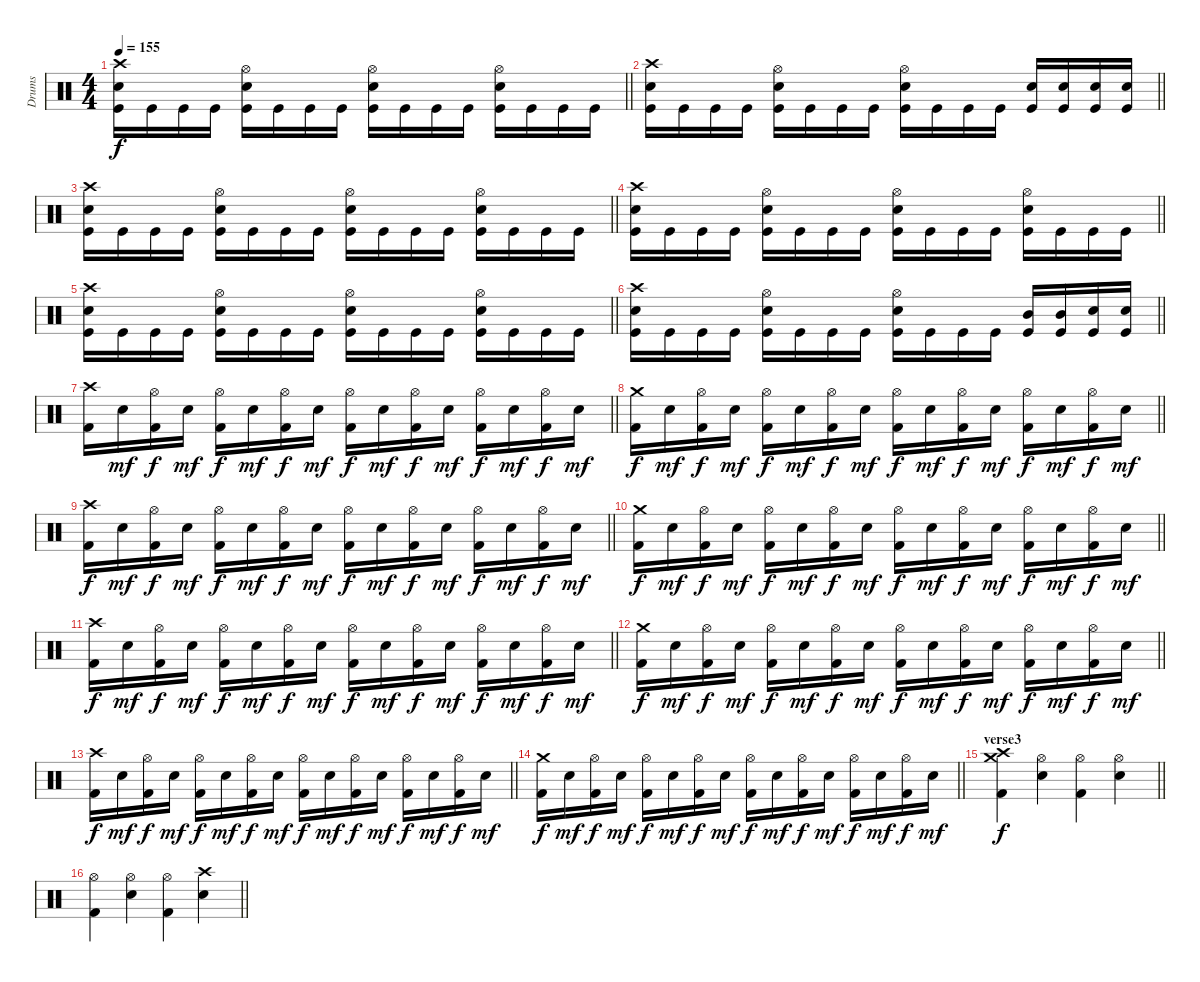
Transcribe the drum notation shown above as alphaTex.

\track ("Drums" "Drums") {instrument percussion}
\staff {score}
\articulation defaults
\ts (4 4)
\tempo 155
\clef neutral
\barLineRight lightlight
\ks c
("Crash high (hit)" "Snare (hit) 2" "Kick (hit)").16{dy f} "Kick (hit)".16 "Kick (hit)".16 "Kick (hit)".16 ("Hi-Hat (open)" "Snare (hit) 2" "Kick (hit)").16 "Kick (hit)".16 "Kick (hit)".16 "Kick (hit)".16 ("Hi-Hat (open)" "Snare (hit) 2" "Kick (hit)").16 "Kick (hit)".16 "Kick (hit)".16 "Kick (hit)".16 ("Hi-Hat (open)" "Snare (hit) 2" "Kick (hit)").16 "Kick (hit)".16 "Kick (hit)".16 "Kick (hit)".16 |
\barLineRight lightlight
("Crash high (hit)" "Snare (hit) 2" "Kick (hit)").16 "Kick (hit)".16 "Kick (hit)".16 "Kick (hit)".16 ("Hi-Hat (open)" "Snare (hit) 2" "Kick (hit)").16 "Kick (hit)".16 "Kick (hit)".16 "Kick (hit)".16 ("Hi-Hat (open)" "Snare (hit) 2" "Kick (hit)").16 "Kick (hit)".16 "Kick (hit)".16 "Kick (hit)".16 ("Electric Snare (hit)" "Kick (hit)").16 ("Electric Snare (hit)" "Kick (hit)").16 ("Electric Snare (hit)" "Kick (hit)").16 ("Electric Snare (hit)" "Kick (hit)").16 |
\barLineRight lightlight
("Crash high (hit)" "Snare (hit) 2" "Kick (hit)").16 "Kick (hit)".16 "Kick (hit)".16 "Kick (hit)".16 ("Hi-Hat (open)" "Snare (hit) 2" "Kick (hit)").16 "Kick (hit)".16 "Kick (hit)".16 "Kick (hit)".16 ("Hi-Hat (open)" "Snare (hit) 2" "Kick (hit)").16 "Kick (hit)".16 "Kick (hit)".16 "Kick (hit)".16 ("Hi-Hat (open)" "Snare (hit) 2" "Kick (hit)").16 "Kick (hit)".16 "Kick (hit)".16 "Kick (hit)".16 |
\barLineRight lightlight
("Crash high (hit)" "Snare (hit) 2" "Kick (hit)").16 "Kick (hit)".16 "Kick (hit)".16 "Kick (hit)".16 ("Hi-Hat (open)" "Snare (hit) 2" "Kick (hit)").16 "Kick (hit)".16 "Kick (hit)".16 "Kick (hit)".16 ("Hi-Hat (open)" "Snare (hit) 2" "Kick (hit)").16 "Kick (hit)".16 "Kick (hit)".16 "Kick (hit)".16 ("Hi-Hat (open)" "Snare (hit) 2" "Kick (hit)").16 "Kick (hit)".16 "Kick (hit)".16 "Kick (hit)".16 |
\barLineRight lightlight
("Crash high (hit)" "Snare (hit) 2" "Kick (hit)").16 "Kick (hit)".16 "Kick (hit)".16 "Kick (hit)".16 ("Hi-Hat (open)" "Snare (hit) 2" "Kick (hit)").16 "Kick (hit)".16 "Kick (hit)".16 "Kick (hit)".16 ("Hi-Hat (open)" "Snare (hit) 2" "Kick (hit)").16 "Kick (hit)".16 "Kick (hit)".16 "Kick (hit)".16 ("Hi-Hat (open)" "Snare (hit) 2" "Kick (hit)").16 "Kick (hit)".16 "Kick (hit)".16 "Kick (hit)".16 |
\barLineRight lightlight
("Crash high (hit)" "Snare (hit) 2" "Kick (hit)").16 "Kick (hit)".16 "Kick (hit)".16 "Kick (hit)".16 ("Hi-Hat (open)" "Snare (hit) 2" "Kick (hit)").16 "Kick (hit)".16 "Kick (hit)".16 "Kick (hit)".16 ("Hi-Hat (open)" "Snare (hit) 2" "Kick (hit)").16 "Kick (hit)".16 "Kick (hit)".16 "Kick (hit)".16 ("Mid Tom (hit)" "Kick (hit)").16 ("Mid Tom (hit)" "Kick (hit)").16 ("Electric Snare (hit)" "Kick (hit)").16 ("Electric Snare (hit)" "Kick (hit)").16 |
\barLineRight lightlight
("Crash high (hit)" "Kick (hit) 2").16 "Electric Snare (hit)".16{dy mf} ("Hi-Hat (open)" "Kick (hit) 2").16{dy f} "Electric Snare (hit)".16{dy mf} ("Hi-Hat (open)" "Kick (hit) 2").16{dy f} "Electric Snare (hit)".16{dy mf} ("Hi-Hat (open)" "Kick (hit) 2").16{dy f} "Electric Snare (hit)".16{dy mf} ("Hi-Hat (open)" "Kick (hit) 2").16{dy f} "Electric Snare (hit)".16{dy mf} ("Hi-Hat (open)" "Kick (hit) 2").16{dy f} "Electric Snare (hit)".16{dy mf} ("Hi-Hat (open)" "Kick (hit) 2").16{dy f} "Electric Snare (hit)".16{dy mf} ("Hi-Hat (open)" "Kick (hit) 2").16{dy f} "Electric Snare (hit)".16{dy mf} |
\barLineRight lightlight
("Crash medium (hit)" "Kick (hit) 2").16{dy f} "Electric Snare (hit)".16{dy mf} ("Hi-Hat (open)" "Kick (hit) 2").16{dy f} "Electric Snare (hit)".16{dy mf} ("Hi-Hat (open)" "Kick (hit) 2").16{dy f} "Electric Snare (hit)".16{dy mf} ("Hi-Hat (open)" "Kick (hit) 2").16{dy f} "Electric Snare (hit)".16{dy mf} ("Hi-Hat (open)" "Kick (hit) 2").16{dy f} "Electric Snare (hit)".16{dy mf} ("Hi-Hat (open)" "Kick (hit) 2").16{dy f} "Electric Snare (hit)".16{dy mf} ("Hi-Hat (open)" "Kick (hit) 2").16{dy f} "Electric Snare (hit)".16{dy mf} ("Hi-Hat (open)" "Kick (hit) 2").16{dy f} "Electric Snare (hit)".16{dy mf} |
\barLineRight lightlight
("Crash high (hit)" "Kick (hit) 2").16{dy f} "Electric Snare (hit)".16{dy mf} ("Hi-Hat (open)" "Kick (hit) 2").16{dy f} "Electric Snare (hit)".16{dy mf} ("Hi-Hat (open)" "Kick (hit) 2").16{dy f} "Electric Snare (hit)".16{dy mf} ("Hi-Hat (open)" "Kick (hit) 2").16{dy f} "Electric Snare (hit)".16{dy mf} ("Hi-Hat (open)" "Kick (hit) 2").16{dy f} "Electric Snare (hit)".16{dy mf} ("Hi-Hat (open)" "Kick (hit) 2").16{dy f} "Electric Snare (hit)".16{dy mf} ("Hi-Hat (open)" "Kick (hit) 2").16{dy f} "Electric Snare (hit)".16{dy mf} ("Hi-Hat (open)" "Kick (hit) 2").16{dy f} "Electric Snare (hit)".16{dy mf} |
\barLineRight lightlight
("Crash medium (hit)" "Kick (hit) 2").16{dy f} "Electric Snare (hit)".16{dy mf} ("Hi-Hat (open)" "Kick (hit) 2").16{dy f} "Electric Snare (hit)".16{dy mf} ("Hi-Hat (open)" "Kick (hit) 2").16{dy f} "Electric Snare (hit)".16{dy mf} ("Hi-Hat (open)" "Kick (hit) 2").16{dy f} "Electric Snare (hit)".16{dy mf} ("Hi-Hat (open)" "Kick (hit) 2").16{dy f} "Electric Snare (hit)".16{dy mf} ("Hi-Hat (open)" "Kick (hit) 2").16{dy f} "Electric Snare (hit)".16{dy mf} ("Hi-Hat (open)" "Kick (hit) 2").16{dy f} "Electric Snare (hit)".16{dy mf} ("Hi-Hat (open)" "Kick (hit) 2").16{dy f} "Electric Snare (hit)".16{dy mf} |
\barLineRight lightlight
("Crash high (hit)" "Kick (hit) 2").16{dy f} "Electric Snare (hit)".16{dy mf} ("Hi-Hat (open)" "Kick (hit) 2").16{dy f} "Electric Snare (hit)".16{dy mf} ("Hi-Hat (open)" "Kick (hit) 2").16{dy f} "Electric Snare (hit)".16{dy mf} ("Hi-Hat (open)" "Kick (hit) 2").16{dy f} "Electric Snare (hit)".16{dy mf} ("Hi-Hat (open)" "Kick (hit) 2").16{dy f} "Electric Snare (hit)".16{dy mf} ("Hi-Hat (open)" "Kick (hit) 2").16{dy f} "Electric Snare (hit)".16{dy mf} ("Hi-Hat (open)" "Kick (hit) 2").16{dy f} "Electric Snare (hit)".16{dy mf} ("Hi-Hat (open)" "Kick (hit) 2").16{dy f} "Electric Snare (hit)".16{dy mf} |
\barLineRight lightlight
("Crash medium (hit)" "Kick (hit) 2").16{dy f} "Electric Snare (hit)".16{dy mf} ("Hi-Hat (open)" "Kick (hit) 2").16{dy f} "Electric Snare (hit)".16{dy mf} ("Hi-Hat (open)" "Kick (hit) 2").16{dy f} "Electric Snare (hit)".16{dy mf} ("Hi-Hat (open)" "Kick (hit) 2").16{dy f} "Electric Snare (hit)".16{dy mf} ("Hi-Hat (open)" "Kick (hit) 2").16{dy f} "Electric Snare (hit)".16{dy mf} ("Hi-Hat (open)" "Kick (hit) 2").16{dy f} "Electric Snare (hit)".16{dy mf} ("Hi-Hat (open)" "Kick (hit) 2").16{dy f} "Electric Snare (hit)".16{dy mf} ("Hi-Hat (open)" "Kick (hit) 2").16{dy f} "Electric Snare (hit)".16{dy mf} |
\barLineRight lightlight
("Crash high (hit)" "Kick (hit) 2").16{dy f} "Electric Snare (hit)".16{dy mf} ("Hi-Hat (open)" "Kick (hit) 2").16{dy f} "Electric Snare (hit)".16{dy mf} ("Hi-Hat (open)" "Kick (hit) 2").16{dy f} "Electric Snare (hit)".16{dy mf} ("Hi-Hat (open)" "Kick (hit) 2").16{dy f} "Electric Snare (hit)".16{dy mf} ("Hi-Hat (open)" "Kick (hit) 2").16{dy f} "Electric Snare (hit)".16{dy mf} ("Hi-Hat (open)" "Kick (hit) 2").16{dy f} "Electric Snare (hit)".16{dy mf} ("Hi-Hat (open)" "Kick (hit) 2").16{dy f} "Electric Snare (hit)".16{dy mf} ("Hi-Hat (open)" "Kick (hit) 2").16{dy f} "Electric Snare (hit)".16{dy mf} |
\barLineRight lightlight
("Crash medium (hit)" "Kick (hit) 2").16{dy f} "Electric Snare (hit)".16{dy mf} ("Hi-Hat (open)" "Kick (hit) 2").16{dy f} "Electric Snare (hit)".16{dy mf} ("Hi-Hat (open)" "Kick (hit) 2").16{dy f} "Electric Snare (hit)".16{dy mf} ("Hi-Hat (open)" "Kick (hit) 2").16{dy f} "Electric Snare (hit)".16{dy mf} ("Hi-Hat (open)" "Kick (hit) 2").16{dy f} "Electric Snare (hit)".16{dy mf} ("Hi-Hat (open)" "Kick (hit) 2").16{dy f} "Electric Snare (hit)".16{dy mf} ("Hi-Hat (open)" "Kick (hit) 2").16{dy f} "Electric Snare (hit)".16{dy mf} ("Hi-Hat (open)" "Kick (hit) 2").16{dy f} "Electric Snare (hit)".16{dy mf} |
\section ("" "verse3")
\barLineRight lightlight
("Kick (hit) 2" "Crash medium (hit)" "Crash high (hit)").4{dy f} ("Hi-Hat (open)" "Snare (hit) 2").4 ("Kick (hit) 2" "Hi-Hat (open)").4 ("Hi-Hat (open)" "Snare (hit) 2").4 |
\barLineRight lightlight
("Kick (hit) 2" "Hi-Hat (open)").4 ("Hi-Hat (open)" "Snare (hit) 2").4 ("Kick (hit) 2" "Hi-Hat (open)").4 ("Crash high (hit)" "Snare (hit) 2").4
